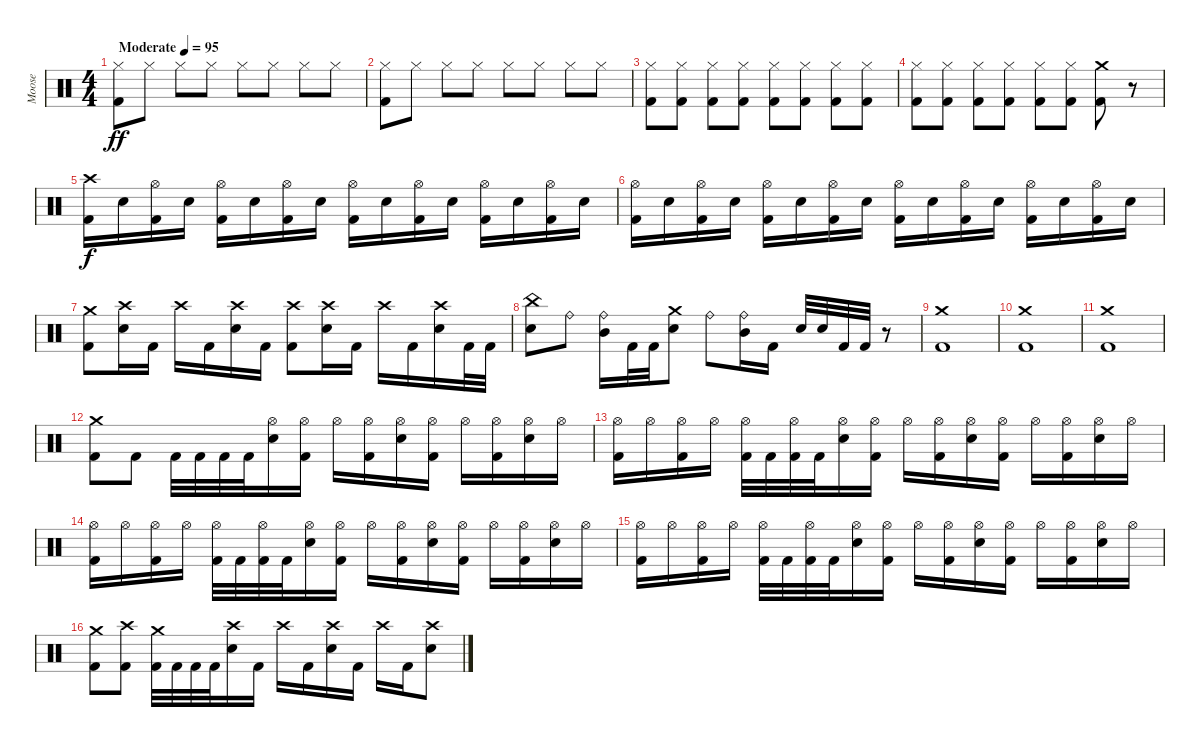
\track ("Moose" "Moose") {instrument percussion}
\staff {score}
\articulation defaults
\ts (4 4)
\tempo (95 "Moderate")
\clef neutral
\ks c
("Hi-Hat (closed)" "Kick (hit) 2").8{dy ff} "Hi-Hat (closed)".8 "Hi-Hat (closed)".8 "Hi-Hat (closed)".8 "Hi-Hat (closed)".8 "Hi-Hat (closed)".8 "Hi-Hat (closed)".8 "Hi-Hat (closed)".8 |
("Hi-Hat (closed)" "Kick (hit) 2").8 "Hi-Hat (closed)".8 "Hi-Hat (closed)".8 "Hi-Hat (closed)".8 "Hi-Hat (closed)".8 "Hi-Hat (closed)".8 "Hi-Hat (closed)".8 "Hi-Hat (closed)".8 |
("Hi-Hat (closed)" "Kick (hit) 2").8 ("Hi-Hat (closed)" "Kick (hit) 2").8 ("Hi-Hat (closed)" "Kick (hit) 2").8 ("Hi-Hat (closed)" "Kick (hit) 2").8 ("Hi-Hat (closed)" "Kick (hit) 2").8 ("Hi-Hat (closed)" "Kick (hit) 2").8 ("Hi-Hat (closed)" "Kick (hit) 2").8 ("Hi-Hat (closed)" "Kick (hit) 2").8 |
("Hi-Hat (closed)" "Kick (hit) 2").8 ("Hi-Hat (closed)" "Kick (hit) 2").8 ("Hi-Hat (closed)" "Kick (hit) 2").8 ("Hi-Hat (closed)" "Kick (hit) 2").8 ("Hi-Hat (closed)" "Kick (hit) 2").8 ("Hi-Hat (closed)" "Kick (hit) 2").8 ("Crash medium (hit)" "Kick (hit) 2").8 r.8 |
("Crash high (hit)" "Kick (hit) 2").16{dy f} "Electric Snare (hit)".16 ("Hi-Hat (open)" "Kick (hit) 2").16 "Electric Snare (hit)".16 ("Hi-Hat (open)" "Kick (hit) 2").16 "Electric Snare (hit)".16 ("Hi-Hat (open)" "Kick (hit) 2").16 "Electric Snare (hit)".16 ("Hi-Hat (open)" "Kick (hit) 2").16 "Electric Snare (hit)".16 ("Hi-Hat (open)" "Kick (hit) 2").16 "Electric Snare (hit)".16 ("Hi-Hat (open)" "Kick (hit) 2").16 "Electric Snare (hit)".16 ("Hi-Hat (open)" "Kick (hit) 2").16 "Electric Snare (hit)".16 |
("Hi-Hat (open)" "Kick (hit) 2").16 "Electric Snare (hit)".16 ("Hi-Hat (open)" "Kick (hit) 2").16 "Electric Snare (hit)".16 ("Hi-Hat (open)" "Kick (hit) 2").16 "Electric Snare (hit)".16 ("Hi-Hat (open)" "Kick (hit) 2").16 "Electric Snare (hit)".16 ("Hi-Hat (open)" "Kick (hit) 2").16 "Electric Snare (hit)".16 ("Hi-Hat (open)" "Kick (hit) 2").16 "Electric Snare (hit)".16 ("Hi-Hat (open)" "Kick (hit) 2").16 "Electric Snare (hit)".16 ("Hi-Hat (open)" "Kick (hit) 2").16 "Electric Snare (hit)".16 |
("Crash medium (hit)" "Kick (hit) 2").8 ("Crash high (hit)" "Electric Snare (hit)").16 "Kick (hit) 2".16 "Crash high (hit)".16 "Kick (hit) 2".16 ("Crash high (hit)" "Electric Snare (hit)").16 "Kick (hit) 2".16 ("Crash high (hit)" "Kick (hit) 2").8 ("Crash high (hit)" "Electric Snare (hit)").16 "Kick (hit) 2".16 "Crash high (hit)".16 "Kick (hit) 2".16 ("Crash high (hit)" "Electric Snare (hit)").16 "Kick (hit) 2".32 "Kick (hit) 2".32 |
("China (hit)" "Electric Snare (hit)").8 "Ride (bell)".8 ("Ride (bell)" "Mid Tom (hit)").16 "Kick (hit) 2".32 "Kick (hit) 2".32 ("Crash medium (hit)" "Electric Snare (hit)").8 "Ride (bell)".8 ("Ride (bell)" "Mid Tom (hit)").16 "Kick (hit) 2".16 "Electric Snare (hit)".32 "Electric Snare (hit)".32 "Kick (hit) 2".32 "Kick (hit) 2".32 r.8 |
("Crash medium (hit)" "Kick (hit) 2").1 |
("Crash medium (hit)" "Kick (hit) 2").1 |
("Crash medium (hit)" "Kick (hit) 2").1 |
("Crash medium (hit)" "Kick (hit) 2").8 "Kick (hit) 2".8 "Kick (hit) 2".32 "Kick (hit) 2".32 "Kick (hit) 2".32 "Kick (hit) 2".32 ("Hi-Hat (open)" "Electric Snare (hit)").16 ("Hi-Hat (open)" "Kick (hit) 2").16 "Hi-Hat (open)".16 ("Hi-Hat (open)" "Kick (hit) 2").16 ("Hi-Hat (open)" "Electric Snare (hit)").16 ("Hi-Hat (open)" "Kick (hit) 2").16 "Hi-Hat (open)".16 ("Hi-Hat (open)" "Kick (hit) 2").16 ("Hi-Hat (open)" "Electric Snare (hit)").16 "Hi-Hat (open)".16 |
("Hi-Hat (open)" "Kick (hit) 2").16 "Hi-Hat (open)".16 ("Hi-Hat (open)" "Kick (hit) 2").16 "Hi-Hat (open)".16 ("Hi-Hat (open)" "Kick (hit) 2").32 "Kick (hit) 2".32 ("Hi-Hat (open)" "Kick (hit) 2").32 "Kick (hit) 2".32 ("Hi-Hat (open)" "Electric Snare (hit)").16 ("Hi-Hat (open)" "Kick (hit) 2").16 "Hi-Hat (open)".16 ("Hi-Hat (open)" "Kick (hit) 2").16 ("Hi-Hat (open)" "Electric Snare (hit)").16 ("Hi-Hat (open)" "Kick (hit) 2").16 "Hi-Hat (open)".16 ("Hi-Hat (open)" "Kick (hit) 2").16 ("Hi-Hat (open)" "Electric Snare (hit)").16 "Hi-Hat (open)".16 |
("Hi-Hat (open)" "Kick (hit) 2").16 "Hi-Hat (open)".16 ("Hi-Hat (open)" "Kick (hit) 2").16 "Hi-Hat (open)".16 ("Hi-Hat (open)" "Kick (hit) 2").32 "Kick (hit) 2".32 ("Hi-Hat (open)" "Kick (hit) 2").32 "Kick (hit) 2".32 ("Hi-Hat (open)" "Electric Snare (hit)").16 ("Hi-Hat (open)" "Kick (hit) 2").16 "Hi-Hat (open)".16 ("Hi-Hat (open)" "Kick (hit) 2").16 ("Hi-Hat (open)" "Electric Snare (hit)").16 ("Hi-Hat (open)" "Kick (hit) 2").16 "Hi-Hat (open)".16 ("Hi-Hat (open)" "Kick (hit) 2").16 ("Hi-Hat (open)" "Electric Snare (hit)").16 "Hi-Hat (open)".16 |
("Hi-Hat (open)" "Kick (hit) 2").16 "Hi-Hat (open)".16 ("Hi-Hat (open)" "Kick (hit) 2").16 "Hi-Hat (open)".16 ("Hi-Hat (open)" "Kick (hit) 2").32 "Kick (hit) 2".32 ("Hi-Hat (open)" "Kick (hit) 2").32 "Kick (hit) 2".32 ("Hi-Hat (open)" "Electric Snare (hit)").16 ("Hi-Hat (open)" "Kick (hit) 2").16 "Hi-Hat (open)".16 ("Hi-Hat (open)" "Kick (hit) 2").16 ("Hi-Hat (open)" "Electric Snare (hit)").16 ("Hi-Hat (open)" "Kick (hit) 2").16 "Hi-Hat (open)".16 ("Hi-Hat (open)" "Kick (hit) 2").16 ("Hi-Hat (open)" "Electric Snare (hit)").16 "Hi-Hat (open)".16 |
("Crash medium (hit)" "Kick (hit) 2").8 ("Crash high (hit)" "Kick (hit) 2").8 ("Crash medium (hit)" "Kick (hit) 2").32 "Kick (hit) 2".32 "Kick (hit) 2".32 "Kick (hit) 2".32 ("Crash high (hit)" "Electric Snare (hit)").16 "Kick (hit) 2".16 "Crash high (hit)".16 "Kick (hit) 2".16 ("Crash high (hit)" "Electric Snare (hit)").16 "Kick (hit) 2".16 "Crash high (hit)".16 "Kick (hit) 2".16 ("Crash high (hit)" "Electric Snare (hit)").8
